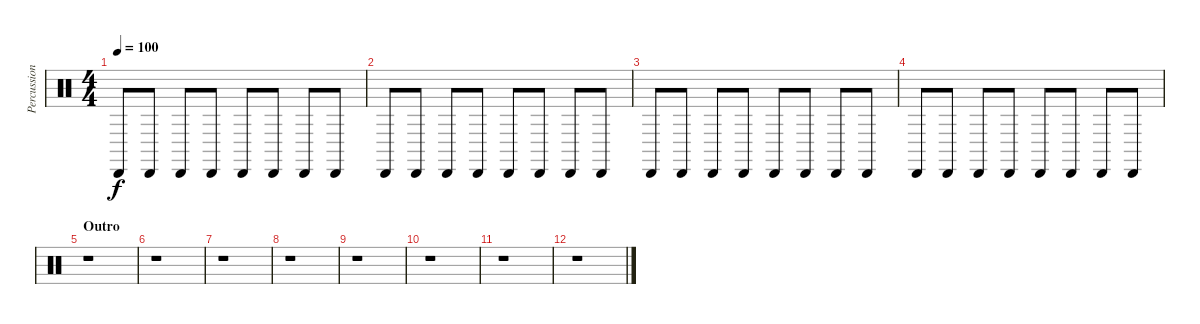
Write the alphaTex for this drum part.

\track ("Percussion" "Percussion") {instrument percussion}
\staff {score}
\articulation defaults
\ts (4 4)
\tempo 100
\clef neutral
\ks c "Cabasa (hit)".8{dy f} "Cabasa (hit)".8 "Cabasa (hit)".8 "Cabasa (hit)".8 "Cabasa (hit)".8 "Cabasa (hit)".8 "Cabasa (hit)".8 "Cabasa (hit)".8
|
"Cabasa (hit)".8 "Cabasa (hit)".8 "Cabasa (hit)".8 "Cabasa (hit)".8 "Cabasa (hit)".8 "Cabasa (hit)".8 "Cabasa (hit)".8 "Cabasa (hit)".8 |
"Cabasa (hit)".8 "Cabasa (hit)".8 "Cabasa (hit)".8 "Cabasa (hit)".8 "Cabasa (hit)".8 "Cabasa (hit)".8 "Cabasa (hit)".8 "Cabasa (hit)".8 |
"Cabasa (hit)".8 "Cabasa (hit)".8 "Cabasa (hit)".8 "Cabasa (hit)".8 "Cabasa (hit)".8 "Cabasa (hit)".8 "Cabasa (hit)".8 "Cabasa (hit)".8 |
\section ("" "Outro")
r.1 |
r.1 |
r.1 |
r.1 |
r.1 |
r.1 |
r.1 |
r.1
